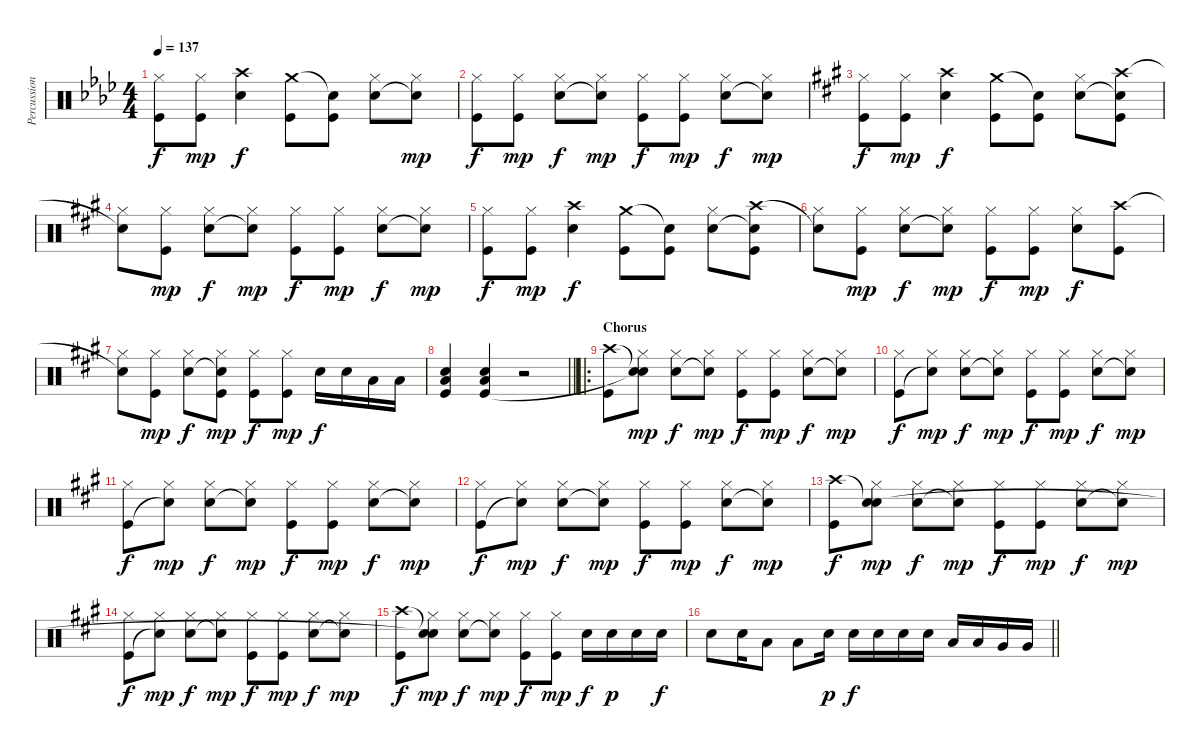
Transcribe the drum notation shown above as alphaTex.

\track ("Percussion" "Percussion") {instrument percussion}
\staff {score}
\articulation defaults
\ts (4 4)
\tempo 137
\clef neutral
\ks ab
("Hi-Hat (closed)" "Kick (hit)").8{dy f} ("Hi-Hat (closed)" "Kick (hit)").8{dy mp} ("Crash high (hit)" "Electric Snare (hit)").4{dy f} ("Crash medium (hit)" "Kick (hit)").8 ("Snare (hit)"{t} "Kick (hit)").8 ("Hi-Hat (closed)" "Electric Snare (hit)").8 ("Hi-Hat (closed)" "Snare (hit)"{t}).8{dy mp} |
("Hi-Hat (closed)" "Kick (hit)").8{dy f} ("Hi-Hat (closed)" "Kick (hit)").8{dy mp} ("Hi-Hat (closed)" "Electric Snare (hit)").8{dy f} ("Hi-Hat (closed)" "Snare (hit)"{t}).8{dy mp} ("Hi-Hat (closed)" "Kick (hit)").8{dy f} ("Hi-Hat (closed)" "Kick (hit)").8{dy mp} ("Hi-Hat (closed)" "Electric Snare (hit)").8{dy f} ("Hi-Hat (closed)" "Snare (hit)"{t}).8{dy mp} |
\ks a
("Hi-Hat (closed)" "Kick (hit)").8{dy f} ("Hi-Hat (closed)" "Kick (hit)").8{dy mp} ("Crash high (hit)" "Electric Snare (hit)").4{dy f} ("Crash medium (hit)" "Kick (hit)").8 ("Snare (hit)"{t} "Kick (hit)").8 ("Hi-Hat (closed)" "Electric Snare (hit)").8 ("Crash high (hit)" "Snare (hit)"{t} "Kick (hit)").8 |
("Snare (hit)"{t} "Hi-Hat (closed)").8 ("Hi-Hat (closed)" "Kick (hit)").8{dy mp} ("Hi-Hat (closed)" "Electric Snare (hit)").8{dy f} ("Hi-Hat (closed)" "Snare (hit)"{t}).8{dy mp} ("Hi-Hat (closed)" "Kick (hit)").8{dy f} ("Hi-Hat (closed)" "Kick (hit)").8{dy mp} ("Hi-Hat (closed)" "Electric Snare (hit)").8{dy f} ("Hi-Hat (closed)" "Snare (hit)"{t}).8{dy mp} |
("Hi-Hat (closed)" "Kick (hit)").8{dy f} ("Hi-Hat (closed)" "Kick (hit)").8{dy mp} ("Crash high (hit)" "Electric Snare (hit)").4{dy f} ("Crash medium (hit)" "Kick (hit)").8 ("Snare (hit)"{t} "Kick (hit)").8 ("Hi-Hat (closed)" "Electric Snare (hit)").8 ("Crash high (hit)" "Snare (hit)"{t} "Kick (hit)").8 |
("Snare (hit)"{t} "Hi-Hat (closed)").8 ("Hi-Hat (closed)" "Kick (hit)").8{dy mp} ("Hi-Hat (closed)" "Electric Snare (hit)").8{dy f} ("Hi-Hat (closed)" "Snare (hit)"{t}).8{dy mp} ("Hi-Hat (closed)" "Kick (hit)").8{dy f} ("Hi-Hat (closed)" "Kick (hit)").8{dy mp} ("Hi-Hat (closed)" "Electric Snare (hit)").8{dy f} ("Crash high (hit)" "Kick (hit)").8 |
("Snare (hit)"{t} "Hi-Hat (closed)").8 ("Hi-Hat (closed)" "Kick (hit)").8{dy mp} ("Hi-Hat (closed)" "Electric Snare (hit)").8{dy f} ("Hi-Hat (closed)" "Snare (hit)"{t} "Kick (hit)").8{dy mp} ("Hi-Hat (closed)" "Kick (hit)").8{dy f} ("Hi-Hat (closed)" "Kick (hit)").8{dy mp} "Electric Snare (hit)".16{dy f} "Electric Snare (hit)".16 "Low Tom (hit)".16 "Low Tom (hit)".16 |
\barLineRight lightlight
("Low Floor Tom (hit)" "Electric Snare (hit)" "Kick (hit)").4 ("Low Floor Tom (hit)" "Electric Snare (hit)" "Kick (hit)").4 r.2 |
\ro
\section ("" "Chorus")
("Crash high (hit)" "Kick (hit)").8 ("Snare (hit)"{t} "Hi-Hat (closed)" "Snare (hit)"{t}).8{dy mp} ("Hi-Hat (closed)" "Electric Snare (hit)").8{dy f} ("Hi-Hat (closed)" "Snare (hit)"{t}).8{dy mp} ("Hi-Hat (closed)" "Kick (hit)").8{dy f} ("Hi-Hat (closed)" "Kick (hit)").8{dy mp} ("Hi-Hat (closed)" "Electric Snare (hit)").8{dy f} ("Hi-Hat (closed)" "Snare (hit)"{t}).8{dy mp} |
("Hi-Hat (closed)" "Kick (hit)").8{dy f} ("Hi-Hat (closed)" "Snare (hit)"{t}).8{dy mp} ("Hi-Hat (closed)" "Electric Snare (hit)").8{dy f} ("Hi-Hat (closed)" "Snare (hit)"{t}).8{dy mp} ("Hi-Hat (closed)" "Kick (hit)").8{dy f} ("Hi-Hat (closed)" "Kick (hit)").8{dy mp} ("Hi-Hat (closed)" "Electric Snare (hit)").8{dy f} ("Hi-Hat (closed)" "Snare (hit)"{t}).8{dy mp} |
("Hi-Hat (closed)" "Kick (hit)").8{dy f} ("Hi-Hat (closed)" "Snare (hit)"{t}).8{dy mp} ("Hi-Hat (closed)" "Electric Snare (hit)").8{dy f} ("Hi-Hat (closed)" "Snare (hit)"{t}).8{dy mp} ("Hi-Hat (closed)" "Kick (hit)").8{dy f} ("Hi-Hat (closed)" "Kick (hit)").8{dy mp} ("Hi-Hat (closed)" "Electric Snare (hit)").8{dy f} ("Hi-Hat (closed)" "Snare (hit)"{t}).8{dy mp} |
("Hi-Hat (closed)" "Kick (hit)").8{dy f} ("Hi-Hat (closed)" "Snare (hit)"{t}).8{dy mp} ("Hi-Hat (closed)" "Electric Snare (hit)").8{dy f} ("Hi-Hat (closed)" "Snare (hit)"{t}).8{dy mp} ("Hi-Hat (closed)" "Kick (hit)").8{dy f} ("Hi-Hat (closed)" "Kick (hit)").8{dy mp} ("Hi-Hat (closed)" "Electric Snare (hit)").8{dy f} ("Hi-Hat (closed)" "Snare (hit)"{t}).8{dy mp} |
("Crash high (hit)" "Kick (hit)").8{dy f} ("Snare (hit)"{t} "Hi-Hat (closed)" "Snare (hit)").8{dy mp} ("Hi-Hat (closed)" "Electric Snare (hit)").8{dy f} ("Hi-Hat (closed)" "Snare (hit)"{t}).8{dy mp} ("Hi-Hat (closed)" "Kick (hit)").8{dy f} ("Hi-Hat (closed)" "Kick (hit)").8{dy mp} ("Hi-Hat (closed)" "Electric Snare (hit)").8{dy f} ("Hi-Hat (closed)" "Snare (hit)"{t}).8{dy mp} |
("Hi-Hat (closed)" "Kick (hit)").8{dy f} ("Hi-Hat (closed)" "Snare (hit)"{t}).8{dy mp} ("Hi-Hat (closed)" "Electric Snare (hit)").8{dy f} ("Hi-Hat (closed)" "Snare (hit)"{t}).8{dy mp} ("Hi-Hat (closed)" "Kick (hit)").8{dy f} ("Hi-Hat (closed)" "Kick (hit)").8{dy mp} ("Hi-Hat (closed)" "Electric Snare (hit)").8{dy f} ("Hi-Hat (closed)" "Snare (hit)"{t}).8{dy mp} |
("Crash high (hit)" "Kick (hit)").8{dy f} ("Snare (hit)"{t} "Hi-Hat (closed)" "Snare (hit)"{t}).8{dy mp} ("Hi-Hat (closed)" "Electric Snare (hit)").8{dy f} ("Hi-Hat (closed)" "Snare (hit)"{t}).8{dy mp} ("Hi-Hat (closed)" "Kick (hit)").8{dy f} ("Hi-Hat (closed)" "Kick (hit)").8{dy mp} "Electric Snare (hit)".16{dy f} "Electric Snare (hit)".16{dy p} "Electric Snare (hit)".16 "Electric Snare (hit)".16{dy f} |
\barLineRight lightlight "Electric Snare (hit)".8 "Electric Snare (hit)".16 "Low Tom (hit)".8 "Low Tom (hit)".8 "Electric Snare (hit)".16{dy p} "Electric Snare (hit)".16{dy f} "Electric Snare (hit)".16 "Electric Snare (hit)".16 "Electric Snare (hit)".16 "Low Tom (hit)".16 "Low Tom (hit)".16 "Very Low Tom (hit)".16 "Very Low Tom (hit)".16
